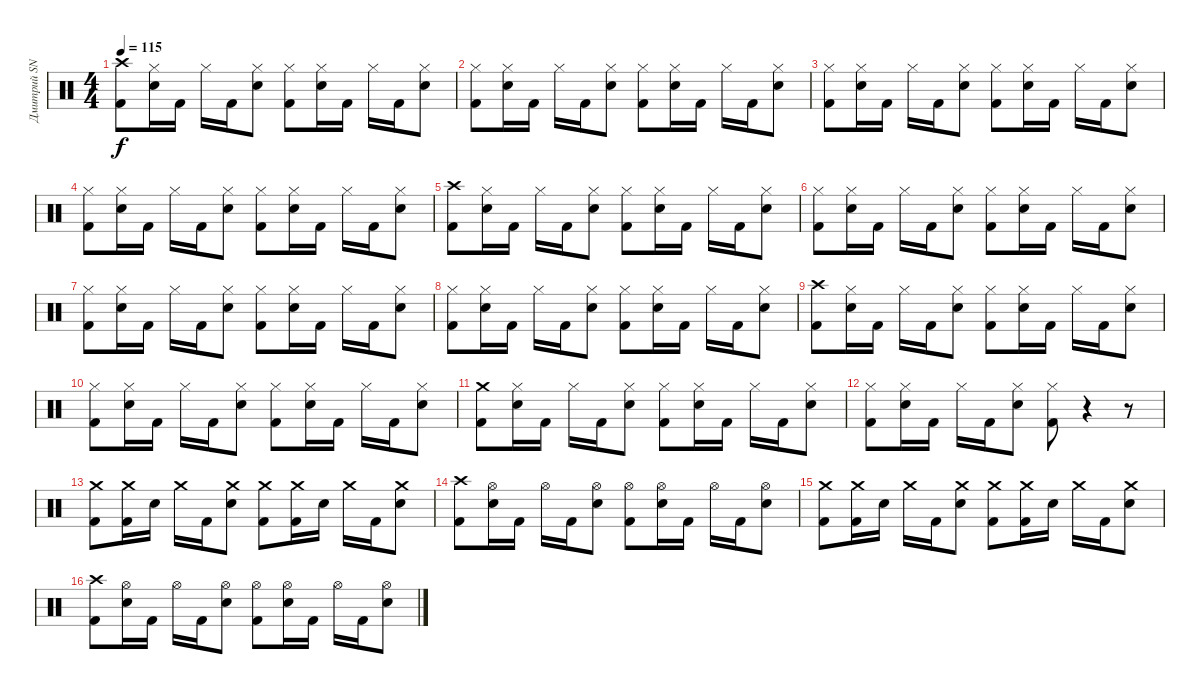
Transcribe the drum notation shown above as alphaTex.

\track ("Дмитрий SNAKE Хакимов" "Дмитрий SN") {instrument percussion}
\staff {score}
\articulation defaults
\ts (4 4)
\tempo 115
\clef neutral
\ks c
("Crash high (hit)" "Kick (hit) 2").8{dy f} ("Hi-Hat (closed)" "Snare (hit) 2").16 "Kick (hit) 2".16 "Hi-Hat (closed)".16 "Kick (hit) 2".16 ("Hi-Hat (closed)" "Snare (hit) 2").8 ("Hi-Hat (closed)" "Kick (hit) 2").8 ("Hi-Hat (closed)" "Snare (hit) 2").16 "Kick (hit) 2".16 "Hi-Hat (closed)".16 "Kick (hit) 2".16 ("Hi-Hat (closed)" "Snare (hit) 2").8 |
("Hi-Hat (closed)" "Kick (hit) 2").8 ("Hi-Hat (closed)" "Snare (hit) 2").16 "Kick (hit) 2".16 "Hi-Hat (closed)".16 "Kick (hit) 2".16 ("Hi-Hat (closed)" "Snare (hit) 2").8 ("Hi-Hat (closed)" "Kick (hit) 2").8 ("Hi-Hat (closed)" "Snare (hit) 2").16 "Kick (hit) 2".16 "Hi-Hat (closed)".16 "Kick (hit) 2".16 ("Hi-Hat (closed)" "Snare (hit) 2").8 |
("Hi-Hat (closed)" "Kick (hit) 2").8 ("Hi-Hat (closed)" "Snare (hit) 2").16 "Kick (hit) 2".16 "Hi-Hat (closed)".16 "Kick (hit) 2".16 ("Hi-Hat (closed)" "Snare (hit) 2").8 ("Hi-Hat (closed)" "Kick (hit) 2").8 ("Hi-Hat (closed)" "Snare (hit) 2").16 "Kick (hit) 2".16 "Hi-Hat (closed)".16 "Kick (hit) 2".16 ("Hi-Hat (closed)" "Snare (hit) 2").8 |
("Hi-Hat (closed)" "Kick (hit) 2").8 ("Hi-Hat (closed)" "Snare (hit) 2").16 "Kick (hit) 2".16 "Hi-Hat (closed)".16 "Kick (hit) 2".16 ("Hi-Hat (closed)" "Snare (hit) 2").8 ("Hi-Hat (closed)" "Kick (hit) 2").8 ("Hi-Hat (closed)" "Snare (hit) 2").16 "Kick (hit) 2".16 "Hi-Hat (closed)".16 "Kick (hit) 2".16 ("Hi-Hat (closed)" "Snare (hit) 2").8 |
("Crash high (hit)" "Kick (hit) 2").8 ("Hi-Hat (closed)" "Snare (hit) 2").16 "Kick (hit) 2".16 "Hi-Hat (closed)".16 "Kick (hit) 2".16 ("Hi-Hat (closed)" "Snare (hit) 2").8 ("Hi-Hat (closed)" "Kick (hit) 2").8 ("Hi-Hat (closed)" "Snare (hit) 2").16 "Kick (hit) 2".16 "Hi-Hat (closed)".16 "Kick (hit) 2".16 ("Hi-Hat (closed)" "Snare (hit) 2").8 |
("Hi-Hat (closed)" "Kick (hit) 2").8 ("Hi-Hat (closed)" "Snare (hit) 2").16 "Kick (hit) 2".16 "Hi-Hat (closed)".16 "Kick (hit) 2".16 ("Hi-Hat (closed)" "Snare (hit) 2").8 ("Hi-Hat (closed)" "Kick (hit) 2").8 ("Hi-Hat (closed)" "Snare (hit) 2").16 "Kick (hit) 2".16 "Hi-Hat (closed)".16 "Kick (hit) 2".16 ("Hi-Hat (closed)" "Snare (hit) 2").8 |
("Hi-Hat (closed)" "Kick (hit) 2").8 ("Hi-Hat (closed)" "Snare (hit) 2").16 "Kick (hit) 2".16 "Hi-Hat (closed)".16 "Kick (hit) 2".16 ("Hi-Hat (closed)" "Snare (hit) 2").8 ("Hi-Hat (closed)" "Kick (hit) 2").8 ("Hi-Hat (closed)" "Snare (hit) 2").16 "Kick (hit) 2".16 "Hi-Hat (closed)".16 "Kick (hit) 2".16 ("Hi-Hat (closed)" "Snare (hit) 2").8 |
("Hi-Hat (closed)" "Kick (hit) 2").8 ("Hi-Hat (closed)" "Snare (hit) 2").16 "Kick (hit) 2".16 "Hi-Hat (closed)".16 "Kick (hit) 2".16 ("Hi-Hat (closed)" "Snare (hit) 2").8 ("Hi-Hat (closed)" "Kick (hit) 2").8 ("Hi-Hat (closed)" "Snare (hit) 2").16 "Kick (hit) 2".16 "Hi-Hat (closed)".16 "Kick (hit) 2".16 ("Hi-Hat (closed)" "Snare (hit) 2").8 |
("Crash high (hit)" "Kick (hit) 2").8 ("Hi-Hat (closed)" "Snare (hit) 2").16 "Kick (hit) 2".16 "Hi-Hat (closed)".16 "Kick (hit) 2".16 ("Hi-Hat (closed)" "Snare (hit) 2").8 ("Hi-Hat (closed)" "Kick (hit) 2").8 ("Hi-Hat (closed)" "Snare (hit) 2").16 "Kick (hit) 2".16 "Hi-Hat (closed)".16 "Kick (hit) 2".16 ("Hi-Hat (closed)" "Snare (hit) 2").8 |
("Hi-Hat (closed)" "Kick (hit) 2").8 ("Hi-Hat (closed)" "Snare (hit) 2").16 "Kick (hit) 2".16 "Hi-Hat (closed)".16 "Kick (hit) 2".16 ("Hi-Hat (closed)" "Snare (hit) 2").8 ("Hi-Hat (closed)" "Kick (hit) 2").8 ("Hi-Hat (closed)" "Snare (hit) 2").16 "Kick (hit) 2".16 "Hi-Hat (closed)".16 "Kick (hit) 2".16 ("Hi-Hat (closed)" "Snare (hit) 2").8 |
("Crash medium (hit)" "Kick (hit) 2").8 ("Hi-Hat (closed)" "Snare (hit) 2").16 "Kick (hit) 2".16 "Hi-Hat (closed)".16 "Kick (hit) 2".16 ("Hi-Hat (closed)" "Snare (hit) 2").8 ("Hi-Hat (closed)" "Kick (hit) 2").8 ("Hi-Hat (closed)" "Snare (hit) 2").16 "Kick (hit) 2".16 "Hi-Hat (closed)".16 "Kick (hit) 2".16 ("Hi-Hat (closed)" "Snare (hit) 2").8 |
("Hi-Hat (closed)" "Kick (hit) 2").8 ("Hi-Hat (closed)" "Snare (hit) 2").16 "Kick (hit) 2".16 "Hi-Hat (closed)".16 "Kick (hit) 2".16 ("Hi-Hat (closed)" "Snare (hit) 2").8 ("Hi-Hat (closed)" "Kick (hit) 2").8 r.4 r.8 |
("Crash medium (hit)" "Kick (hit) 2").8 ("Crash medium (hit)" "Kick (hit) 2").16 "Snare (hit) 2".16 "Crash medium (hit)".16 "Kick (hit) 2".16 ("Crash medium (hit)" "Snare (hit) 2").8 ("Crash medium (hit)" "Kick (hit) 2").8 ("Crash medium (hit)" "Kick (hit) 2").16 "Snare (hit) 2".16 "Crash medium (hit)".16 "Kick (hit) 2".16 ("Crash medium (hit)" "Snare (hit) 2").8 |
("Crash high (hit)" "Kick (hit) 2").8 ("Hi-Hat (open)" "Snare (hit) 2").16 "Kick (hit) 2".16 "Hi-Hat (open)".16 "Kick (hit) 2".16 ("Hi-Hat (open)" "Snare (hit) 2").8 ("Hi-Hat (open)" "Kick (hit) 2").8 ("Hi-Hat (open)" "Snare (hit) 2").16 "Kick (hit) 2".16 "Hi-Hat (open)".16 "Kick (hit) 2".16 ("Hi-Hat (open)" "Snare (hit) 2").8 |
("Crash medium (hit)" "Kick (hit) 2").8 ("Crash medium (hit)" "Kick (hit) 2").16 "Snare (hit) 2".16 "Crash medium (hit)".16 "Kick (hit) 2".16 ("Crash medium (hit)" "Snare (hit) 2").8 ("Crash medium (hit)" "Kick (hit) 2").8 ("Crash medium (hit)" "Kick (hit) 2").16 "Snare (hit) 2".16 "Crash medium (hit)".16 "Kick (hit) 2".16 ("Crash medium (hit)" "Snare (hit) 2").8 |
("Crash high (hit)" "Kick (hit) 2").8 ("Hi-Hat (open)" "Snare (hit) 2").16 "Kick (hit) 2".16 "Hi-Hat (open)".16 "Kick (hit) 2".16 ("Hi-Hat (open)" "Snare (hit) 2").8 ("Hi-Hat (open)" "Kick (hit) 2").8 ("Hi-Hat (open)" "Snare (hit) 2").16 "Kick (hit) 2".16 "Hi-Hat (open)".16 "Kick (hit) 2".16 ("Hi-Hat (open)" "Snare (hit) 2").8
